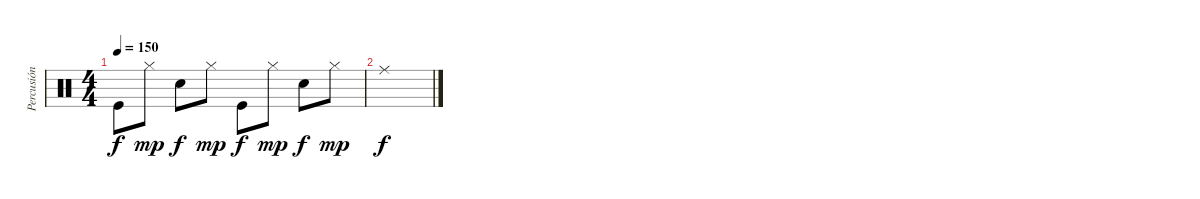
\track ("Percusión" "Percusión") {instrument percussion}
\staff {score}
\articulation defaults
\ts (4 4)
\tempo 150
\clef neutral
\ks c "Kick (hit)".8{dy f} "Hi-Hat (closed)".8{dy mp} "Snare (hit) 2".8{dy f} "Hi-Hat (closed)".8{dy mp} "Kick (hit)".8{dy f} "Hi-Hat (closed)".8{dy mp} "Snare (hit) 2".8{dy f} "Hi-Hat (closed)".8{dy mp}
|
"Ride (middle)".1{dy f}
